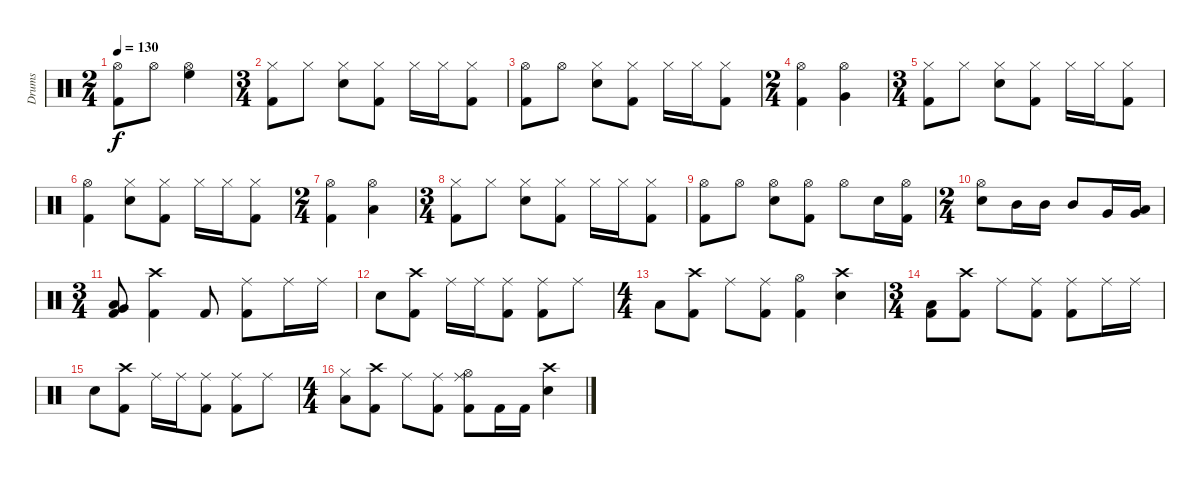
\track ("Drums" "Drums") {instrument percussion}
\staff {score}
\articulation defaults
\ts (2 4)
\tempo 130
\clef neutral
\ks c
("Hi-Hat (open)" "Kick (hit) 2").8{dy f} "Hi-Hat (open)".8 ("Hi-Hat (open)" "High Floor Tom (hit)").4 |
\ts (3 4)
("Hi-Hat (closed)" "Kick (hit) 2").8 "Hi-Hat (closed)".8 ("Hi-Hat (closed)" "Snare (hit) 2").8 ("Hi-Hat (closed)" "Kick (hit) 2").8 "Hi-Hat (closed)".16 "Hi-Hat (closed)".16 ("Hi-Hat (closed)" "Kick (hit) 2").8 |
("Hi-Hat (open)" "Kick (hit) 2").8 "Hi-Hat (open)".8 ("Hi-Hat (closed)" "Snare (hit) 2").8 ("Hi-Hat (closed)" "Kick (hit) 2").8 "Hi-Hat (closed)".16 "Hi-Hat (closed)".16 ("Hi-Hat (closed)" "Kick (hit) 2").8 |
\ts (2 4)
("Hi-Hat (open)" "Kick (hit) 2").4 ("Hi-Hat (open)" "Very Low Tom (hit)").4 |
\ts (3 4)
("Hi-Hat (closed)" "Kick (hit) 2").8 "Hi-Hat (closed)".8 ("Hi-Hat (closed)" "Snare (hit) 2").8 ("Hi-Hat (closed)" "Kick (hit) 2").8 "Hi-Hat (closed)".16 "Hi-Hat (closed)".16 ("Hi-Hat (closed)" "Kick (hit) 2").8 |
("Hi-Hat (open)" "Kick (hit) 2").4 ("Hi-Hat (closed)" "Snare (hit) 2").8 ("Hi-Hat (closed)" "Kick (hit) 2").8 "Hi-Hat (closed)".16 "Hi-Hat (closed)".16 ("Hi-Hat (closed)" "Kick (hit) 2").8 |
\ts (2 4)
("Hi-Hat (open)" "Kick (hit) 2").4 ("Hi-Hat (open)" "Low Floor Tom (hit)").4 |
\ts (3 4)
("Hi-Hat (closed)" "Kick (hit) 2").8 "Hi-Hat (closed)".8 ("Hi-Hat (closed)" "Snare (hit) 2").8 ("Hi-Hat (closed)" "Kick (hit) 2").8 "Hi-Hat (closed)".16 "Hi-Hat (closed)".16 ("Hi-Hat (closed)" "Kick (hit) 2").8 |
("Hi-Hat (open)" "Kick (hit) 2").8 "Hi-Hat (open)".8 ("Hi-Hat (open)" "Snare (hit) 2").8 ("Hi-Hat (open)" "Kick (hit) 2").8 "Hi-Hat (open)".8 "Snare (hit) 2".16 ("Hi-Hat (open)" "Kick (hit) 2").16 |
\ts (2 4)
("Hi-Hat (open)" "Snare (hit) 2").8 "Mid Tom (hit)".16 "Mid Tom (hit)".16 "Mid Tom (hit)".8 "Very Low Tom (hit)".16 ("Low Floor Tom (hit)" "Very Low Tom (hit)").16 |
\ts (3 4)
("Low Floor Tom (hit)" "Very Low Tom (hit)" "Kick (hit) 2").8 ("Crash high (hit)" "Kick (hit) 2").4 "Kick (hit) 2".8 ("Ride (middle)" "Kick (hit) 2").8 "Ride (middle)".16 "Ride (middle)".16 |
"Snare (hit) 2".8 ("Crash high (hit)" "Kick (hit) 2").8 "Ride (middle)".16 "Ride (middle)".16 ("Ride (middle)" "Kick (hit) 2").8 ("Ride (middle)" "Kick (hit) 2").8 "Ride (middle)".8 |
\ts (4 4)
"Low Floor Tom (hit)".8 ("Crash high (hit)" "Kick (hit) 2").8 "Ride (middle)".8 ("Ride (middle)" "Kick (hit) 2").8 ("Hi-Hat (open)" "Kick (hit) 2").4 ("Crash high (hit)" "Snare (hit) 2").4 |
\ts (3 4)
("Low Floor Tom (hit)" "Kick (hit) 2").8 ("Crash high (hit)" "Kick (hit) 2").8 "Ride (middle)".8 ("Ride (middle)" "Kick (hit) 2").8 ("Ride (middle)" "Kick (hit) 2").8 "Ride (middle)".16 "Ride (middle)".16 |
"Snare (hit) 2".8 ("Crash high (hit)" "Kick (hit) 2").8 "Ride (middle)".16 "Ride (middle)".16 ("Ride (middle)" "Kick (hit) 2").8 ("Ride (middle)" "Kick (hit) 2").8 "Ride (middle)".8 |
\ts (4 4)
("Low Floor Tom (hit)" "Hi-Hat (closed)").8 ("Crash high (hit)" "Kick (hit) 2").8 "Ride (middle)".8 ("Ride (middle)" "Kick (hit) 2").8 ("Ride (middle)" "Hi-Hat (open)" "Kick (hit) 2").8 "Kick (hit) 2".16 "Kick (hit) 2".16 ("Crash high (hit)" "Snare (hit) 2").4
